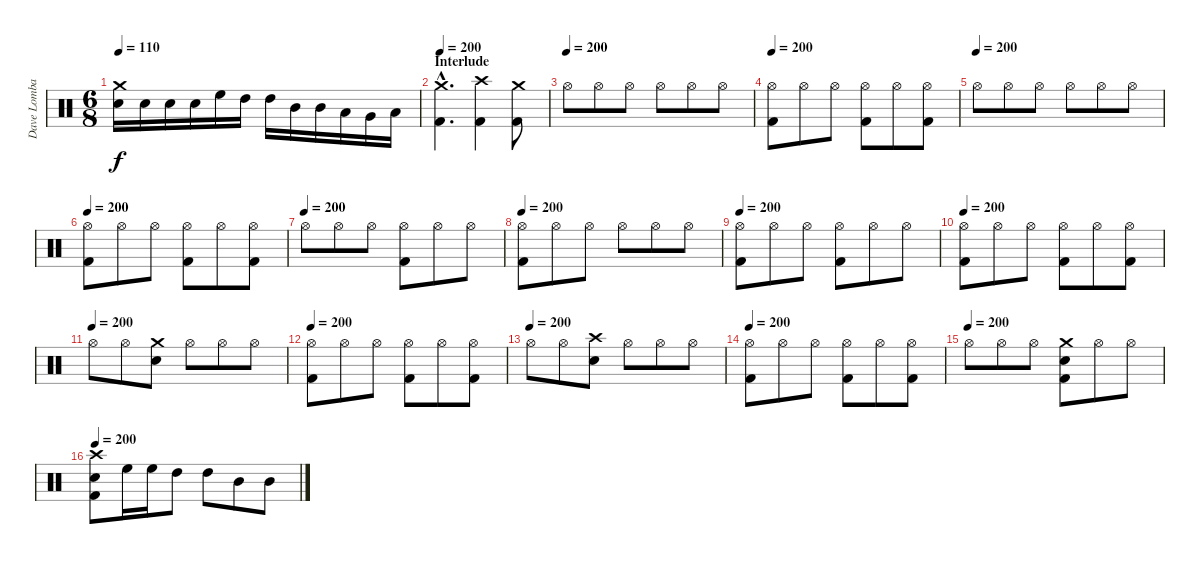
\track ("Dave Lombardo (drums)" "Dave Lomba") {instrument percussion}
\staff {score}
\articulation defaults
\ts (6 8)
\tempo 110
\clef neutral
\ks c
("Crash medium (hit)" "Snare (hit) 2").16{dy f} "Snare (hit) 2".16 "Snare (hit) 2".16 "Snare (hit) 2".16 "High Floor Tom (hit)".16 "High Tom (hit)".16 "High Tom (hit)".16 "Mid Tom (hit)".16 "Mid Tom (hit)".16 "Low Tom (hit)".16 "Very Low Tom (hit)".16 "Low Floor Tom (hit)".16 |
\section ("" "Interlude")
\tempo 200
("Crash medium (hit)"{hac} "Kick (hit) 2"{hac}).4{d} ("Crash high (hit)" "Kick (hit) 2").4 ("Crash medium (hit)" "Kick (hit) 2").8 |
\tempo (200)
"Hi-Hat (open)".8 "Hi-Hat (open)".8 "Hi-Hat (open)".8 "Hi-Hat (open)".8 "Hi-Hat (open)".8 "Hi-Hat (open)".8 |
\tempo 200
("Hi-Hat (open)" "Kick (hit) 2").8 "Hi-Hat (open)".8 "Hi-Hat (open)".8 ("Hi-Hat (open)" "Kick (hit) 2").8 "Hi-Hat (open)".8 ("Hi-Hat (open)" "Kick (hit) 2").8 |
\tempo (200)
"Hi-Hat (open)".8 "Hi-Hat (open)".8 "Hi-Hat (open)".8 "Hi-Hat (open)".8 "Hi-Hat (open)".8 "Hi-Hat (open)".8 |
\tempo 200
("Hi-Hat (open)" "Kick (hit) 2").8 "Hi-Hat (open)".8 "Hi-Hat (open)".8 ("Hi-Hat (open)" "Kick (hit) 2").8 "Hi-Hat (open)".8 ("Hi-Hat (open)" "Kick (hit) 2").8 |
\tempo (200)
"Hi-Hat (open)".8 "Hi-Hat (open)".8 "Hi-Hat (open)".8 ("Hi-Hat (open)" "Kick (hit) 2").8 "Hi-Hat (open)".8 "Hi-Hat (open)".8 |
\tempo 200
("Hi-Hat (open)" "Kick (hit) 2").8 "Hi-Hat (open)".8 "Hi-Hat (open)".8 "Hi-Hat (open)".8 "Hi-Hat (open)".8 "Hi-Hat (open)".8 |
\tempo 200
("Hi-Hat (open)" "Kick (hit) 2").8 "Hi-Hat (open)".8 "Hi-Hat (open)".8 ("Hi-Hat (open)" "Kick (hit) 2").8 "Hi-Hat (open)".8 "Hi-Hat (open)".8 |
\tempo 200
("Hi-Hat (open)" "Kick (hit) 2").8 "Hi-Hat (open)".8 "Hi-Hat (open)".8 ("Hi-Hat (open)" "Kick (hit) 2").8 "Hi-Hat (open)".8 ("Hi-Hat (open)" "Kick (hit) 2").8 |
\tempo (200)
"Hi-Hat (open)".8 "Hi-Hat (open)".8 ("Crash medium (hit)" "Snare (hit) 2").8 "Hi-Hat (open)".8 "Hi-Hat (open)".8 "Hi-Hat (open)".8 |
\tempo 200
("Hi-Hat (open)" "Kick (hit) 2").8 "Hi-Hat (open)".8 "Hi-Hat (open)".8 ("Hi-Hat (open)" "Kick (hit) 2").8 "Hi-Hat (open)".8 ("Hi-Hat (open)" "Kick (hit) 2").8 |
\tempo (200)
"Hi-Hat (open)".8 "Hi-Hat (open)".8 ("Crash high (hit)" "Snare (hit) 2").8 "Hi-Hat (open)".8 "Hi-Hat (open)".8 "Hi-Hat (open)".8 |
\tempo 200
("Hi-Hat (open)" "Kick (hit) 2").8 "Hi-Hat (open)".8 "Hi-Hat (open)".8 ("Hi-Hat (open)" "Kick (hit) 2").8 "Hi-Hat (open)".8 ("Hi-Hat (open)" "Kick (hit) 2").8 |
\tempo (200)
"Hi-Hat (open)".8 "Hi-Hat (open)".8 "Hi-Hat (open)".8 ("Crash medium (hit)" "Snare (hit) 2" "Kick (hit) 2").8 "Hi-Hat (open)".8 "Hi-Hat (open)".8 |
\tempo 200
("Crash high (hit)" "Snare (hit) 2" "Kick (hit) 2").8 "High Floor Tom (hit)".16 "High Floor Tom (hit)".16 "High Tom (hit)".8 "High Tom (hit)".8 "Mid Tom (hit)".8 "Mid Tom (hit)".8
